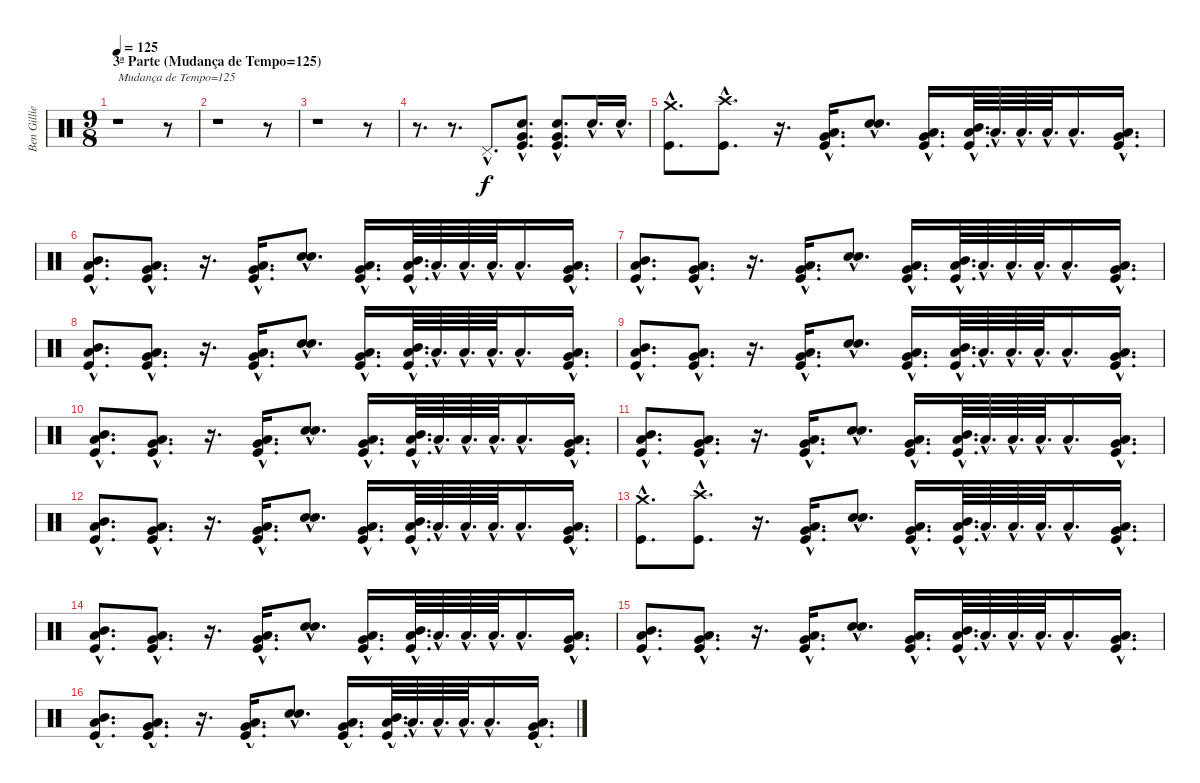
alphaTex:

\track ("Ben Gillies" "Ben Gillie") {instrument percussion}
\staff {score}
\articulation defaults
\ts (9 8)
\section ("" "3ª Parte (Mudança de Tempo=125)")
\tempo 125
\clef neutral
\ks c
r.1{txt "Mudança de Tempo=125" dy f} r.8 |
r.1 r.8 |
r.1 r.8 |
r.8{d} r.8{d} "Pedal Hi-Hat (hit)"{hac}.8{d} ("Kick (hit)"{hac} "Snare (hit) 2"{hac} "Very Low Tom (hit)"{hac}).8{d} ("Kick (hit)"{hac} "Snare (hit) 2"{hac} "Very Low Tom (hit)"{hac}).8{d} "Snare (hit) 2"{hac}.16{d} "Snare (hit) 2"{hac}.16{d} |
("Kick (hit)"{hac} "Crash medium (hit)"{hac}).8{d} ("Kick (hit)"{hac} "Crash high (hit)"{hac}).8{d} r.16{d} ("Kick (hit)"{hac} "Low Tom (hit)"{hac} "Very Low Tom (hit)"{hac}).16{d} ("Snare (hit) 2"{hac} "Snare (hit) 2"{hac}).8{d bu 30} ("Kick (hit)"{hac} "Low Tom (hit)"{hac} "Very Low Tom (hit)"{hac}).16{d} ("Kick (hit)"{hac} "Low Tom (hit)"{hac} "Mid Tom (hit)"{hac}).64{d} "Low Floor Tom (hit)"{hac}.64{d} "Low Floor Tom (hit)"{hac}.64{d} "Low Floor Tom (hit)"{hac}.64{d} "Low Floor Tom (hit)"{hac}.16{d} ("Kick (hit)"{hac} "Very Low Tom (hit)"{hac} "Low Tom (hit)"{hac}).16{d} |
("Kick (hit)"{hac} "Low Tom (hit)"{hac} "Mid Tom (hit)"{hac}).8{d} ("Kick (hit)"{hac} "Low Tom (hit)"{hac} "Very Low Tom (hit)"{hac}).8{d} r.16{d} ("Kick (hit)"{hac} "Low Tom (hit)"{hac} "Very Low Tom (hit)"{hac}).16{d} ("Snare (hit) 2"{hac} "Snare (hit) 2"{hac}).8{d bu 30} ("Kick (hit)"{hac} "Low Tom (hit)"{hac} "Very Low Tom (hit)"{hac}).16{d} ("Kick (hit)"{hac} "Low Tom (hit)"{hac} "Mid Tom (hit)"{hac}).64{d} "Low Floor Tom (hit)"{hac}.64{d} "Low Floor Tom (hit)"{hac}.64{d} "Low Floor Tom (hit)"{hac}.64{d} "Low Floor Tom (hit)"{hac}.16{d} ("Kick (hit)"{hac} "Very Low Tom (hit)"{hac} "Low Tom (hit)"{hac}).16{d} |
("Kick (hit)"{hac} "Low Tom (hit)"{hac} "Mid Tom (hit)"{hac}).8{d} ("Kick (hit)"{hac} "Low Tom (hit)"{hac} "Very Low Tom (hit)"{hac}).8{d} r.16{d} ("Kick (hit)"{hac} "Low Tom (hit)"{hac} "Very Low Tom (hit)"{hac}).16{d} ("Snare (hit) 2"{hac} "Snare (hit) 2"{hac}).8{d bu 30} ("Kick (hit)"{hac} "Low Tom (hit)"{hac} "Very Low Tom (hit)"{hac}).16{d} ("Kick (hit)"{hac} "Low Tom (hit)"{hac} "Mid Tom (hit)"{hac}).64{d} "Low Floor Tom (hit)"{hac}.64{d} "Low Floor Tom (hit)"{hac}.64{d} "Low Floor Tom (hit)"{hac}.64{d} "Low Floor Tom (hit)"{hac}.16{d} ("Kick (hit)"{hac} "Very Low Tom (hit)"{hac} "Low Tom (hit)"{hac}).16{d} |
("Kick (hit)"{hac} "Low Tom (hit)"{hac} "Mid Tom (hit)"{hac}).8{d} ("Kick (hit)"{hac} "Low Tom (hit)"{hac} "Very Low Tom (hit)"{hac}).8{d} r.16{d} ("Kick (hit)"{hac} "Low Tom (hit)"{hac} "Very Low Tom (hit)"{hac}).16{d} ("Snare (hit) 2"{hac} "Snare (hit) 2"{hac}).8{d bu 30} ("Kick (hit)"{hac} "Low Tom (hit)"{hac} "Very Low Tom (hit)"{hac}).16{d} ("Kick (hit)"{hac} "Low Tom (hit)"{hac} "Mid Tom (hit)"{hac}).64{d} "Low Floor Tom (hit)"{hac}.64{d} "Low Floor Tom (hit)"{hac}.64{d} "Low Floor Tom (hit)"{hac}.64{d} "Low Floor Tom (hit)"{hac}.16{d} ("Kick (hit)"{hac} "Very Low Tom (hit)"{hac} "Low Tom (hit)"{hac}).16{d} |
("Kick (hit)"{hac} "Low Tom (hit)"{hac} "Mid Tom (hit)"{hac}).8{d} ("Kick (hit)"{hac} "Low Tom (hit)"{hac} "Very Low Tom (hit)"{hac}).8{d} r.16{d} ("Kick (hit)"{hac} "Low Tom (hit)"{hac} "Very Low Tom (hit)"{hac}).16{d} ("Snare (hit) 2"{hac} "Snare (hit) 2"{hac}).8{d bu 30} ("Kick (hit)"{hac} "Low Tom (hit)"{hac} "Very Low Tom (hit)"{hac}).16{d} ("Kick (hit)"{hac} "Low Tom (hit)"{hac} "Mid Tom (hit)"{hac}).64{d} "Low Floor Tom (hit)"{hac}.64{d} "Low Floor Tom (hit)"{hac}.64{d} "Low Floor Tom (hit)"{hac}.64{d} "Low Floor Tom (hit)"{hac}.16{d} ("Kick (hit)"{hac} "Very Low Tom (hit)"{hac} "Low Tom (hit)"{hac}).16{d} |
("Kick (hit)"{hac} "Low Tom (hit)"{hac} "Mid Tom (hit)"{hac}).8{d} ("Kick (hit)"{hac} "Low Tom (hit)"{hac} "Very Low Tom (hit)"{hac}).8{d} r.16{d} ("Kick (hit)"{hac} "Low Tom (hit)"{hac} "Very Low Tom (hit)"{hac}).16{d} ("Snare (hit) 2"{hac} "Snare (hit) 2"{hac}).8{d bu 30} ("Kick (hit)"{hac} "Low Tom (hit)"{hac} "Very Low Tom (hit)"{hac}).16{d} ("Kick (hit)"{hac} "Low Tom (hit)"{hac} "Mid Tom (hit)"{hac}).64{d} "Low Floor Tom (hit)"{hac}.64{d} "Low Floor Tom (hit)"{hac}.64{d} "Low Floor Tom (hit)"{hac}.64{d} "Low Floor Tom (hit)"{hac}.16{d} ("Kick (hit)"{hac} "Very Low Tom (hit)"{hac} "Low Tom (hit)"{hac}).16{d} |
("Kick (hit)"{hac} "Low Tom (hit)"{hac} "Mid Tom (hit)"{hac}).8{d} ("Kick (hit)"{hac} "Low Tom (hit)"{hac} "Very Low Tom (hit)"{hac}).8{d} r.16{d} ("Kick (hit)"{hac} "Low Tom (hit)"{hac} "Very Low Tom (hit)"{hac}).16{d} ("Snare (hit) 2"{hac} "Snare (hit) 2"{hac}).8{d bu 30} ("Kick (hit)"{hac} "Low Tom (hit)"{hac} "Very Low Tom (hit)"{hac}).16{d} ("Kick (hit)"{hac} "Low Tom (hit)"{hac} "Mid Tom (hit)"{hac}).64{d} "Low Floor Tom (hit)"{hac}.64{d} "Low Floor Tom (hit)"{hac}.64{d} "Low Floor Tom (hit)"{hac}.64{d} "Low Floor Tom (hit)"{hac}.16{d} ("Kick (hit)"{hac} "Very Low Tom (hit)"{hac} "Low Tom (hit)"{hac}).16{d} |
("Kick (hit)"{hac} "Low Tom (hit)"{hac} "Mid Tom (hit)"{hac}).8{d} ("Kick (hit)"{hac} "Low Tom (hit)"{hac} "Very Low Tom (hit)"{hac}).8{d} r.16{d} ("Kick (hit)"{hac} "Low Tom (hit)"{hac} "Very Low Tom (hit)"{hac}).16{d} ("Snare (hit) 2"{hac} "Snare (hit) 2"{hac}).8{d bu 30} ("Kick (hit)"{hac} "Low Tom (hit)"{hac} "Very Low Tom (hit)"{hac}).16{d} ("Kick (hit)"{hac} "Low Tom (hit)"{hac} "Mid Tom (hit)"{hac}).64{d} "Low Floor Tom (hit)"{hac}.64{d} "Low Floor Tom (hit)"{hac}.64{d} "Low Floor Tom (hit)"{hac}.64{d} "Low Floor Tom (hit)"{hac}.16{d} ("Kick (hit)"{hac} "Very Low Tom (hit)"{hac} "Low Tom (hit)"{hac}).16{d} |
("Kick (hit)"{hac} "Crash medium (hit)"{hac}).8{d} ("Kick (hit)"{hac} "Crash high (hit)"{hac}).8{d} r.16{d} ("Kick (hit)"{hac} "Low Tom (hit)"{hac} "Very Low Tom (hit)"{hac}).16{d} ("Snare (hit) 2"{hac} "Snare (hit) 2"{hac}).8{d bu 30} ("Kick (hit)"{hac} "Low Tom (hit)"{hac} "Very Low Tom (hit)"{hac}).16{d} ("Kick (hit)"{hac} "Low Tom (hit)"{hac} "Mid Tom (hit)"{hac}).64{d} "Low Floor Tom (hit)"{hac}.64{d} "Low Floor Tom (hit)"{hac}.64{d} "Low Floor Tom (hit)"{hac}.64{d} "Low Floor Tom (hit)"{hac}.16{d} ("Kick (hit)"{hac} "Very Low Tom (hit)"{hac} "Low Tom (hit)"{hac}).16{d} |
("Kick (hit)"{hac} "Low Tom (hit)"{hac} "Mid Tom (hit)"{hac}).8{d} ("Kick (hit)"{hac} "Low Tom (hit)"{hac} "Very Low Tom (hit)"{hac}).8{d} r.16{d} ("Kick (hit)"{hac} "Low Tom (hit)"{hac} "Very Low Tom (hit)"{hac}).16{d} ("Snare (hit) 2"{hac} "Snare (hit) 2"{hac}).8{d bu 30} ("Kick (hit)"{hac} "Low Tom (hit)"{hac} "Very Low Tom (hit)"{hac}).16{d} ("Kick (hit)"{hac} "Low Tom (hit)"{hac} "Mid Tom (hit)"{hac}).64{d} "Low Floor Tom (hit)"{hac}.64{d} "Low Floor Tom (hit)"{hac}.64{d} "Low Floor Tom (hit)"{hac}.64{d} "Low Floor Tom (hit)"{hac}.16{d} ("Kick (hit)"{hac} "Very Low Tom (hit)"{hac} "Low Tom (hit)"{hac}).16{d} |
("Kick (hit)"{hac} "Low Tom (hit)"{hac} "Mid Tom (hit)"{hac}).8{d} ("Kick (hit)"{hac} "Low Tom (hit)"{hac} "Very Low Tom (hit)"{hac}).8{d} r.16{d} ("Kick (hit)"{hac} "Low Tom (hit)"{hac} "Very Low Tom (hit)"{hac}).16{d} ("Snare (hit) 2"{hac} "Snare (hit) 2"{hac}).8{d bu 30} ("Kick (hit)"{hac} "Low Tom (hit)"{hac} "Very Low Tom (hit)"{hac}).16{d} ("Kick (hit)"{hac} "Low Tom (hit)"{hac} "Mid Tom (hit)"{hac}).64{d} "Low Floor Tom (hit)"{hac}.64{d} "Low Floor Tom (hit)"{hac}.64{d} "Low Floor Tom (hit)"{hac}.64{d} "Low Floor Tom (hit)"{hac}.16{d} ("Kick (hit)"{hac} "Very Low Tom (hit)"{hac} "Low Tom (hit)"{hac}).16{d} |
("Kick (hit)"{hac} "Low Tom (hit)"{hac} "Mid Tom (hit)"{hac}).8{d} ("Kick (hit)"{hac} "Low Tom (hit)"{hac} "Very Low Tom (hit)"{hac}).8{d} r.16{d} ("Kick (hit)"{hac} "Low Tom (hit)"{hac} "Very Low Tom (hit)"{hac}).16{d} ("Snare (hit) 2"{hac} "Snare (hit) 2"{hac}).8{d bu 30} ("Kick (hit)"{hac} "Low Tom (hit)"{hac} "Very Low Tom (hit)"{hac}).16{d} ("Kick (hit)"{hac} "Low Tom (hit)"{hac} "Mid Tom (hit)"{hac}).64{d} "Low Floor Tom (hit)"{hac}.64{d} "Low Floor Tom (hit)"{hac}.64{d} "Low Floor Tom (hit)"{hac}.64{d} "Low Floor Tom (hit)"{hac}.16{d} ("Kick (hit)"{hac} "Very Low Tom (hit)"{hac} "Low Tom (hit)"{hac}).16{d}
